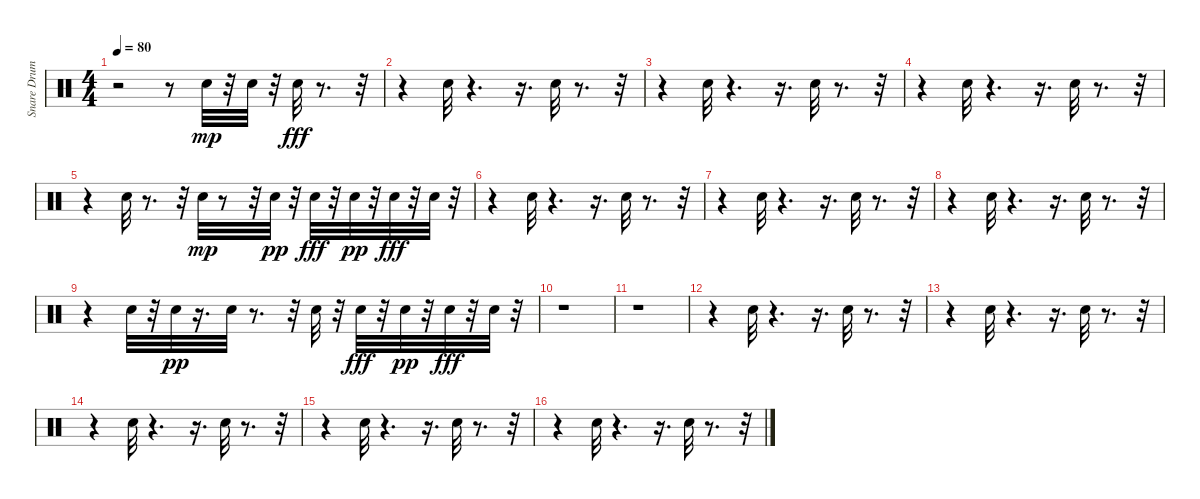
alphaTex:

\track ("Snare Drum" "Snare Drum") {instrument percussion}
\staff {score}
\articulation defaults
\ts (4 4)
\tempo 80
\clef neutral
\ks c
r.2{dy fff} r.8 "Snare (hit) 2".32{dy mp} r.32 "Snare (hit) 2".32 r.32 "Snare (hit) 2".32{dy fff} r.8{d} r.32 |
r.4 "Snare (hit) 2".32 r.4{d} r.16{d} "Snare (hit) 2".32 r.8{d} r.32 |
r.4 "Snare (hit) 2".32 r.4{d} r.16{d} "Snare (hit) 2".32 r.8{d} r.32 |
r.4 "Snare (hit) 2".32 r.4{d} r.16{d} "Snare (hit) 2".32 r.8{d} r.32 |
r.4 "Snare (hit) 2".32 r.8{d} r.32 "Snare (hit) 2".32{dy mp} r.8 r.32 "Snare (hit) 2".32{dy pp} r.32 "Snare (hit) 2".32{dy fff} r.32 "Snare (hit) 2".32{dy pp} r.32 "Snare (hit) 2".32{dy fff} r.32 "Snare (hit) 2".32 r.32 |
r.4 "Snare (hit) 2".32 r.4{d} r.16{d} "Snare (hit) 2".32 r.8{d} r.32 |
r.4 "Snare (hit) 2".32 r.4{d} r.16{d} "Snare (hit) 2".32 r.8{d} r.32 |
r.4 "Snare (hit) 2".32 r.4{d} r.16{d} "Snare (hit) 2".32 r.8{d} r.32 |
r.4 "Snare (hit) 2".32 r.32 "Snare (hit) 2".32{dy pp} r.16{d} "Snare (hit) 2".32 r.8{d} r.32 "Snare (hit) 2".32 r.32 "Snare (hit) 2".32{dy fff} r.32 "Snare (hit) 2".32{dy pp} r.32 "Snare (hit) 2".32{dy fff} r.32 "Snare (hit) 2".32 r.32 |
r.1 |
r.1 |
r.4 "Snare (hit) 2".32 r.4{d} r.16{d} "Snare (hit) 2".32 r.8{d} r.32 |
r.4 "Snare (hit) 2".32 r.4{d} r.16{d} "Snare (hit) 2".32 r.8{d} r.32 |
r.4 "Snare (hit) 2".32 r.4{d} r.16{d} "Snare (hit) 2".32 r.8{d} r.32 |
r.4 "Snare (hit) 2".32 r.4{d} r.16{d} "Snare (hit) 2".32 r.8{d} r.32 |
r.4 "Snare (hit) 2".32 r.4{d} r.16{d} "Snare (hit) 2".32 r.8{d} r.32
